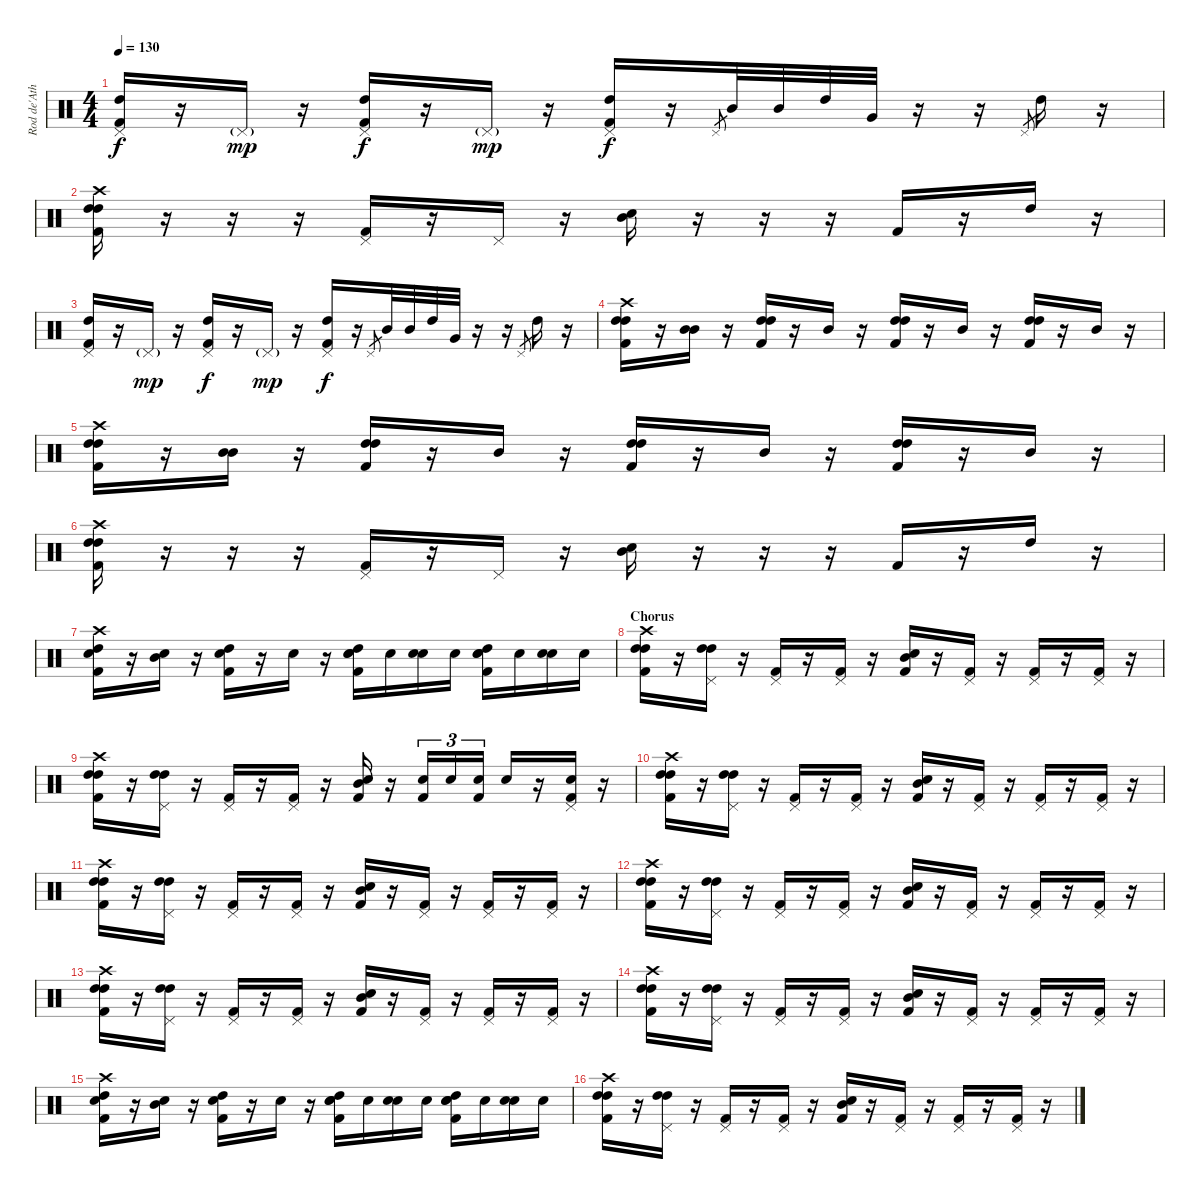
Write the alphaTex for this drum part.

\track ("Rod de'Ath" "Rod de'Ath") {instrument percussion}
\staff {score}
\articulation defaults
\ts (4 4)
\tempo 130
\clef neutral
\ks c
("Pedal Hi-Hat (hit)" "High Tom (hit)" "Kick (hit) 2").16{dy f} r.16 "Pedal Hi-Hat (hit)"{g}.16{dy mp} r.16 ("Pedal Hi-Hat (hit)" "High Tom (hit)" "Kick (hit) 2").16{dy f} r.16 "Pedal Hi-Hat (hit)"{g}.16{dy mp} r.16 ("Pedal Hi-Hat (hit)" "High Tom (hit)" "Kick (hit) 2").16{dy f} r.16 "Pedal Hi-Hat (hit)".8{gr} "Mid Tom (hit)".32 "Mid Tom (hit)".32 "High Tom (hit)".32 "Very Low Tom (hit)".32 r.16 r.16 "Pedal Hi-Hat (hit)".8{gr} "High Tom (hit)".16 r.16 |
("Crash high (hit)" "High Tom (hit)" "High Tom (hit)" "Kick (hit) 2").16 r.16 r.16 r.16 ("Pedal Hi-Hat (hit)" "Kick (hit) 2").16 r.16 "Pedal Hi-Hat (hit)".16 r.16 ("Electric Snare (hit)" "Mid Tom (hit)").16 r.16 r.16 r.16 "Kick (hit) 2".16 r.16 "High Tom (hit)".16 r.16 |
("Pedal Hi-Hat (hit)" "High Tom (hit)" "Kick (hit) 2").16 r.16 "Pedal Hi-Hat (hit)"{g}.16{dy mp} r.16 ("Pedal Hi-Hat (hit)" "High Tom (hit)" "Kick (hit) 2").16{dy f} r.16 "Pedal Hi-Hat (hit)"{g}.16{dy mp} r.16 ("Pedal Hi-Hat (hit)" "High Tom (hit)" "Kick (hit) 2").16{dy f} r.16 "Pedal Hi-Hat (hit)".8{gr} "Mid Tom (hit)".32 "Mid Tom (hit)".32 "High Tom (hit)".32 "Very Low Tom (hit)".32 r.16 r.16 "Pedal Hi-Hat (hit)".8{gr} "High Tom (hit)".16 r.16 |
("Crash high (hit)" "High Tom (hit)" "High Tom (hit)" "Kick (hit) 2").16 r.16 ("Mid Tom (hit)" "Mid Tom (hit)").16 r.16 ("High Tom (hit)" "High Tom (hit)" "Kick (hit) 2").16 r.16 "Mid Tom (hit)".16 r.16 ("High Tom (hit)" "High Tom (hit)" "Kick (hit) 2").16 r.16 "Mid Tom (hit)".16 r.16 ("High Tom (hit)" "High Tom (hit)" "Kick (hit) 2").16 r.16 "Mid Tom (hit)".16 r.16 |
("Crash high (hit)" "High Tom (hit)" "High Tom (hit)" "Kick (hit) 2").16 r.16 ("Mid Tom (hit)" "Mid Tom (hit)").16 r.16 ("High Tom (hit)" "High Tom (hit)" "Kick (hit) 2").16 r.16 "Mid Tom (hit)".16 r.16 ("High Tom (hit)" "High Tom (hit)" "Kick (hit) 2").16 r.16 "Mid Tom (hit)".16 r.16 ("High Tom (hit)" "High Tom (hit)" "Kick (hit) 2").16 r.16 "Mid Tom (hit)".16 r.16 |
("Crash high (hit)" "High Tom (hit)" "High Tom (hit)" "Kick (hit) 2").16 r.16 r.16 r.16 ("Pedal Hi-Hat (hit)" "Kick (hit) 2").16 r.16 "Pedal Hi-Hat (hit)".16 r.16 ("Electric Snare (hit)" "Mid Tom (hit)").16 r.16 r.16 r.16 "Kick (hit) 2".16 r.16 "High Tom (hit)".16 r.16 |
("Crash high (hit)" "Snare (hit) 2" "High Tom (hit)" "Kick (hit) 2").16 r.16 ("Snare (hit) 2" "Mid Tom (hit)").16 r.16 ("Snare (hit) 2" "High Tom (hit)" "Kick (hit) 2").16 r.16 "Snare (hit) 2".16 r.16 ("Snare (hit) 2" "High Tom (hit)" "Electric Snare (hit)" "Kick (hit) 2").16 "Electric Snare (hit)".16 ("Snare (hit) 2" "Electric Snare (hit)").16 "Electric Snare (hit)".16 ("Snare (hit) 2" "High Tom (hit)" "Electric Snare (hit)" "Kick (hit) 2").16 "Electric Snare (hit)".16 ("Snare (hit) 2" "Electric Snare (hit)").16 "Electric Snare (hit)".16 |
\section ("" "Chorus")
("Crash high (hit)" "High Tom (hit)" "High Tom (hit)" "Kick (hit) 2").16 r.16 ("Pedal Hi-Hat (hit)" "High Tom (hit)" "High Tom (hit)").16 r.16 ("Pedal Hi-Hat (hit)" "Kick (hit) 2").16 r.16 ("Pedal Hi-Hat (hit)" "Kick (hit) 2").16 r.16 ("Snare (hit) 2" "Mid Tom (hit)" "Kick (hit) 2").16 r.16 ("Pedal Hi-Hat (hit)" "Kick (hit) 2").16 r.16 ("Pedal Hi-Hat (hit)" "Kick (hit) 2").16 r.16 ("Pedal Hi-Hat (hit)" "Kick (hit) 2").16 r.16 |
("Crash high (hit)" "High Tom (hit)" "High Tom (hit)" "Kick (hit) 2").16 r.16 ("Pedal Hi-Hat (hit)" "High Tom (hit)" "High Tom (hit)").16 r.16 ("Pedal Hi-Hat (hit)" "Kick (hit) 2").16 r.16 ("Pedal Hi-Hat (hit)" "Kick (hit) 2").16 r.16 ("Snare (hit) 2" "Mid Tom (hit)" "Kick (hit) 2").16 r.16 ("Electric Snare (hit)" "Kick (hit) 2").16{tu (3 2)} "Electric Snare (hit)".16{tu (3 2)} ("Electric Snare (hit)" "Kick (hit) 2").16{tu (3 2)} "Electric Snare (hit)".16 r.16 ("Electric Snare (hit)" "Pedal Hi-Hat (hit)" "Kick (hit) 2").16 r.16 |
("Crash high (hit)" "High Tom (hit)" "High Tom (hit)" "Kick (hit) 2").16 r.16 ("Pedal Hi-Hat (hit)" "High Tom (hit)" "High Tom (hit)").16 r.16 ("Pedal Hi-Hat (hit)" "Kick (hit) 2").16 r.16 ("Pedal Hi-Hat (hit)" "Kick (hit) 2").16 r.16 ("Snare (hit) 2" "Mid Tom (hit)" "Kick (hit) 2").16 r.16 ("Pedal Hi-Hat (hit)" "Kick (hit) 2").16 r.16 ("Pedal Hi-Hat (hit)" "Kick (hit) 2").16 r.16 ("Pedal Hi-Hat (hit)" "Kick (hit) 2").16 r.16 |
("Crash high (hit)" "High Tom (hit)" "High Tom (hit)" "Kick (hit) 2").16 r.16 ("Pedal Hi-Hat (hit)" "High Tom (hit)" "High Tom (hit)").16 r.16 ("Pedal Hi-Hat (hit)" "Kick (hit) 2").16 r.16 ("Pedal Hi-Hat (hit)" "Kick (hit) 2").16 r.16 ("Snare (hit) 2" "Mid Tom (hit)" "Kick (hit) 2").16 r.16 ("Pedal Hi-Hat (hit)" "Kick (hit) 2").16 r.16 ("Pedal Hi-Hat (hit)" "Kick (hit) 2").16 r.16 ("Pedal Hi-Hat (hit)" "Kick (hit) 2").16 r.16 |
("Crash high (hit)" "High Tom (hit)" "High Tom (hit)" "Kick (hit) 2").16 r.16 ("Pedal Hi-Hat (hit)" "High Tom (hit)" "High Tom (hit)").16 r.16 ("Pedal Hi-Hat (hit)" "Kick (hit) 2").16 r.16 ("Pedal Hi-Hat (hit)" "Kick (hit) 2").16 r.16 ("Snare (hit) 2" "Mid Tom (hit)" "Kick (hit) 2").16 r.16 ("Pedal Hi-Hat (hit)" "Kick (hit) 2").16 r.16 ("Pedal Hi-Hat (hit)" "Kick (hit) 2").16 r.16 ("Pedal Hi-Hat (hit)" "Kick (hit) 2").16 r.16 |
("Crash high (hit)" "High Tom (hit)" "High Tom (hit)" "Kick (hit) 2").16 r.16 ("Pedal Hi-Hat (hit)" "High Tom (hit)" "High Tom (hit)").16 r.16 ("Pedal Hi-Hat (hit)" "Kick (hit) 2").16 r.16 ("Pedal Hi-Hat (hit)" "Kick (hit) 2").16 r.16 ("Snare (hit) 2" "Mid Tom (hit)" "Kick (hit) 2").16 r.16 ("Pedal Hi-Hat (hit)" "Kick (hit) 2").16 r.16 ("Pedal Hi-Hat (hit)" "Kick (hit) 2").16 r.16 ("Pedal Hi-Hat (hit)" "Kick (hit) 2").16 r.16 |
("Crash high (hit)" "High Tom (hit)" "High Tom (hit)" "Kick (hit) 2").16 r.16 ("Pedal Hi-Hat (hit)" "High Tom (hit)" "High Tom (hit)").16 r.16 ("Pedal Hi-Hat (hit)" "Kick (hit) 2").16 r.16 ("Pedal Hi-Hat (hit)" "Kick (hit) 2").16 r.16 ("Snare (hit) 2" "Mid Tom (hit)" "Kick (hit) 2").16 r.16 ("Pedal Hi-Hat (hit)" "Kick (hit) 2").16 r.16 ("Pedal Hi-Hat (hit)" "Kick (hit) 2").16 r.16 ("Pedal Hi-Hat (hit)" "Kick (hit) 2").16 r.16 |
("Crash high (hit)" "Snare (hit) 2" "High Tom (hit)" "Kick (hit) 2").16 r.16 ("Snare (hit) 2" "Mid Tom (hit)").16 r.16 ("Snare (hit) 2" "High Tom (hit)" "Kick (hit) 2").16 r.16 "Snare (hit) 2".16 r.16 ("Snare (hit) 2" "High Tom (hit)" "Electric Snare (hit)" "Kick (hit) 2").16 "Electric Snare (hit)".16 ("Snare (hit) 2" "Electric Snare (hit)").16 "Electric Snare (hit)".16 ("Snare (hit) 2" "High Tom (hit)" "Electric Snare (hit)" "Kick (hit) 2").16 "Electric Snare (hit)".16 ("Snare (hit) 2" "Electric Snare (hit)").16 "Electric Snare (hit)".16 |
("Crash high (hit)" "High Tom (hit)" "High Tom (hit)" "Kick (hit) 2").16 r.16 ("Pedal Hi-Hat (hit)" "High Tom (hit)" "High Tom (hit)").16 r.16 ("Pedal Hi-Hat (hit)" "Kick (hit) 2").16 r.16 ("Pedal Hi-Hat (hit)" "Kick (hit) 2").16 r.16 ("Snare (hit) 2" "Mid Tom (hit)" "Kick (hit) 2").16 r.16 ("Pedal Hi-Hat (hit)" "Kick (hit) 2").16 r.16 ("Pedal Hi-Hat (hit)" "Kick (hit) 2").16 r.16 ("Pedal Hi-Hat (hit)" "Kick (hit) 2").16 r.16
